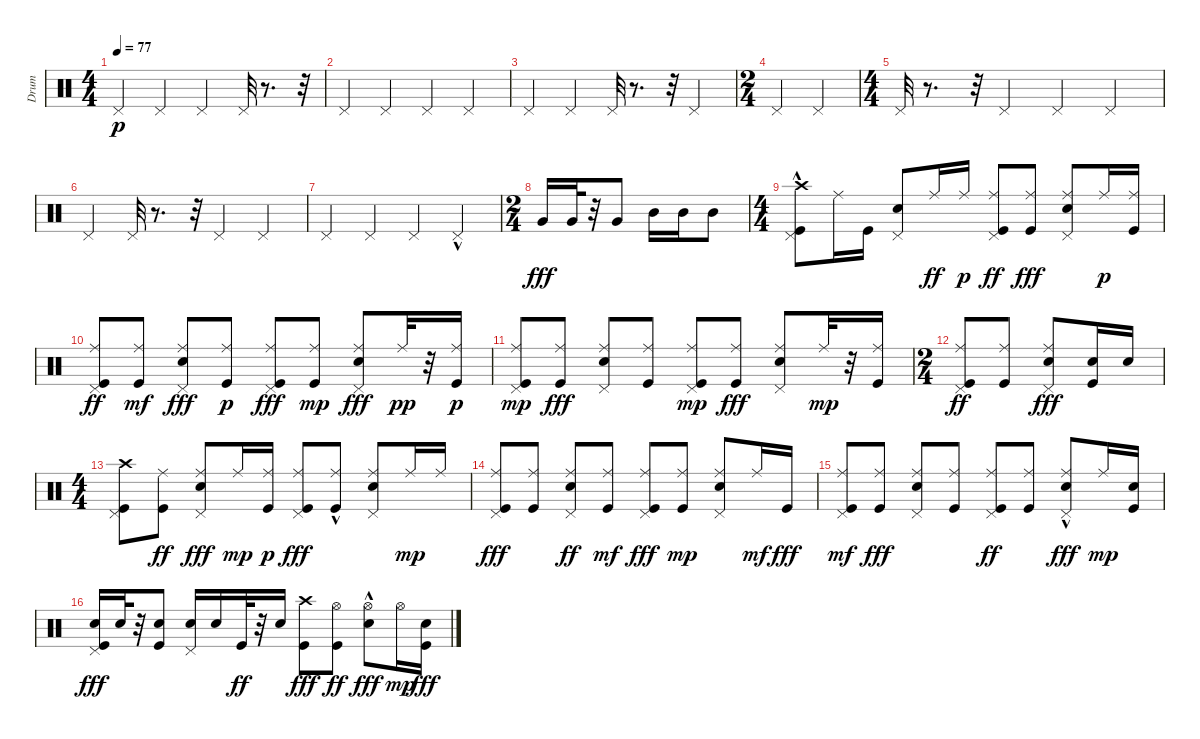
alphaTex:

\track ("Drum" "Drum") {instrument percussion}
\staff {score}
\articulation defaults
\ts (4 4)
\tempo 77
\clef neutral
\ks c "Pedal Hi-Hat (hit)".4{dy p} "Pedal Hi-Hat (hit)".4 "Pedal Hi-Hat (hit)".4 "Pedal Hi-Hat (hit)".32
r.8{d} r.32 |
"Pedal Hi-Hat (hit)".4 "Pedal Hi-Hat (hit)".4 "Pedal Hi-Hat (hit)".4 "Pedal Hi-Hat (hit)".4 |
"Pedal Hi-Hat (hit)".4 "Pedal Hi-Hat (hit)".4 "Pedal Hi-Hat (hit)".32 r.8{d} r.32 "Pedal Hi-Hat (hit)".4 |
\ts (2 4)
"Pedal Hi-Hat (hit)".4 "Pedal Hi-Hat (hit)".4 |
\ts (4 4)
"Pedal Hi-Hat (hit)".32 r.8{d} r.32 "Pedal Hi-Hat (hit)".4 "Pedal Hi-Hat (hit)".4 "Pedal Hi-Hat (hit)".4 |
"Pedal Hi-Hat (hit)".4 "Pedal Hi-Hat (hit)".32 r.8{d} r.32 "Pedal Hi-Hat (hit)".4 "Pedal Hi-Hat (hit)".4 |
"Pedal Hi-Hat (hit)".4 "Pedal Hi-Hat (hit)".4 "Pedal Hi-Hat (hit)".4 "Pedal Hi-Hat (hit)"{hac}.4 |
\ts (2 4)
"Very Low Tom (hit)".16{dy fff} "Very Low Tom (hit)".32 r.32 "Very Low Tom (hit)".8 "Mid Tom (hit)".16 "Mid Tom (hit)".16 "Mid Tom (hit)".8 |
\ts (4 4)
("Pedal Hi-Hat (hit)" "Kick (hit)"{hac} "Crash high (hit)").8 "Ride (middle)".16 "Kick (hit)".16 ("Pedal Hi-Hat (hit)" "Snare (hit) 2").8 "Ride (middle)".16{dy ff} "Ride (middle)".16{dy p} ("Pedal Hi-Hat (hit)" "Kick (hit)" "Ride (middle)").8{dy ff} ("Kick (hit)" "Ride (middle)").8{dy fff} ("Pedal Hi-Hat (hit)" "Snare (hit) 2" "Ride (middle)").8 "Ride (middle)".16{dy p} ("Kick (hit)" "Ride (middle)").16 |
("Pedal Hi-Hat (hit)" "Kick (hit)" "Ride (middle)").8{dy ff} ("Kick (hit)" "Ride (middle)").8{dy mf} ("Pedal Hi-Hat (hit)" "Snare (hit) 2" "Ride (middle)").8{dy fff} ("Kick (hit)" "Ride (middle)").8{dy p} ("Pedal Hi-Hat (hit)" "Kick (hit)" "Ride (middle)").8{dy fff} ("Kick (hit)" "Ride (middle)").8{dy mp} ("Pedal Hi-Hat (hit)" "Snare (hit) 2" "Ride (middle)").8{dy fff} "Ride (middle)".32{dy pp} r.32 ("Kick (hit)" "Ride (middle)").16{dy p} |
("Pedal Hi-Hat (hit)" "Kick (hit)" "Ride (middle)").8{dy mp} ("Kick (hit)" "Ride (middle)").8{dy fff} ("Pedal Hi-Hat (hit)" "Snare (hit) 2" "Ride (middle)").8 ("Kick (hit)" "Ride (middle)").8 ("Pedal Hi-Hat (hit)" "Kick (hit)" "Ride (middle)").8{dy mp} ("Kick (hit)" "Ride (middle)").8{dy fff} ("Pedal Hi-Hat (hit)" "Snare (hit) 2" "Ride (middle)").8 "Ride (middle)".32{dy mp} r.32 ("Kick (hit)" "Ride (middle)").16 |
\ts (2 4)
("Pedal Hi-Hat (hit)" "Kick (hit)" "Ride (middle)").8{dy ff} ("Kick (hit)" "Ride (middle)").8 ("Pedal Hi-Hat (hit)" "Snare (hit) 2" "Ride (middle)").8{dy fff} ("Kick (hit)" "Snare (hit) 2").16 "Snare (hit) 2".16 |
\ts (4 4)
("Pedal Hi-Hat (hit)" "Kick (hit)" "Crash high (hit)").8 ("Kick (hit)" "Ride (middle)").8{dy ff} ("Pedal Hi-Hat (hit)" "Snare (hit) 2" "Ride (middle)").8{dy fff} "Ride (middle)".16{dy mp} ("Kick (hit)" "Ride (middle)").16{dy p} ("Pedal Hi-Hat (hit)" "Kick (hit)" "Ride (middle)").8{dy fff} ("Kick (hit)"{hac} "Ride (middle)").8 ("Pedal Hi-Hat (hit)" "Snare (hit) 2" "Ride (middle)").8 "Ride (middle)".16{dy mp} "Ride (middle)".16 |
("Pedal Hi-Hat (hit)" "Kick (hit)" "Ride (middle)").8{dy fff} ("Kick (hit)" "Ride (middle)").8 ("Pedal Hi-Hat (hit)" "Snare (hit) 2" "Ride (middle)").8{dy ff} ("Kick (hit)" "Ride (middle)").8{dy mf} ("Pedal Hi-Hat (hit)" "Kick (hit)" "Ride (middle)").8{dy fff} ("Kick (hit)" "Ride (middle)").8{dy mp} ("Pedal Hi-Hat (hit)" "Snare (hit) 2" "Ride (middle)").8 "Ride (middle)".16{dy mf} "Kick (hit)".16{dy fff} |
("Pedal Hi-Hat (hit)" "Kick (hit)" "Ride (middle)").8{dy mf} ("Kick (hit)" "Ride (middle)").8{dy fff} ("Pedal Hi-Hat (hit)" "Snare (hit) 2" "Ride (middle)").8 ("Kick (hit)" "Ride (middle)").8 ("Pedal Hi-Hat (hit)" "Kick (hit)" "Ride (middle)").8{dy ff} ("Kick (hit)" "Ride (middle)").8 ("Pedal Hi-Hat (hit)" "Snare (hit) 2"{hac} "Ride (middle)").8{dy fff} "Ride (middle)".16{dy mp} ("Kick (hit)" "Snare (hit) 2").16 |
("Pedal Hi-Hat (hit)" "Kick (hit)" "Snare (hit) 2").16{dy fff} "Snare (hit) 2".32 r.32 ("Kick (hit)" "Snare (hit) 2").8 ("Pedal Hi-Hat (hit)" "Snare (hit) 2").16 "Snare (hit) 2".16 "Kick (hit)".32{dy ff} r.32 "Snare (hit) 2".16 ("Kick (hit)" "Crash high (hit)").8{dy fff} ("Kick (hit)" "Hi-Hat (open)").8{dy ff} ("Snare (hit) 2"{hac} "Hi-Hat (open)").8{dy fff} "Hi-Hat (open)".16{dy mp} ("Kick (hit)" "Snare (hit) 2").16{dy fff}
